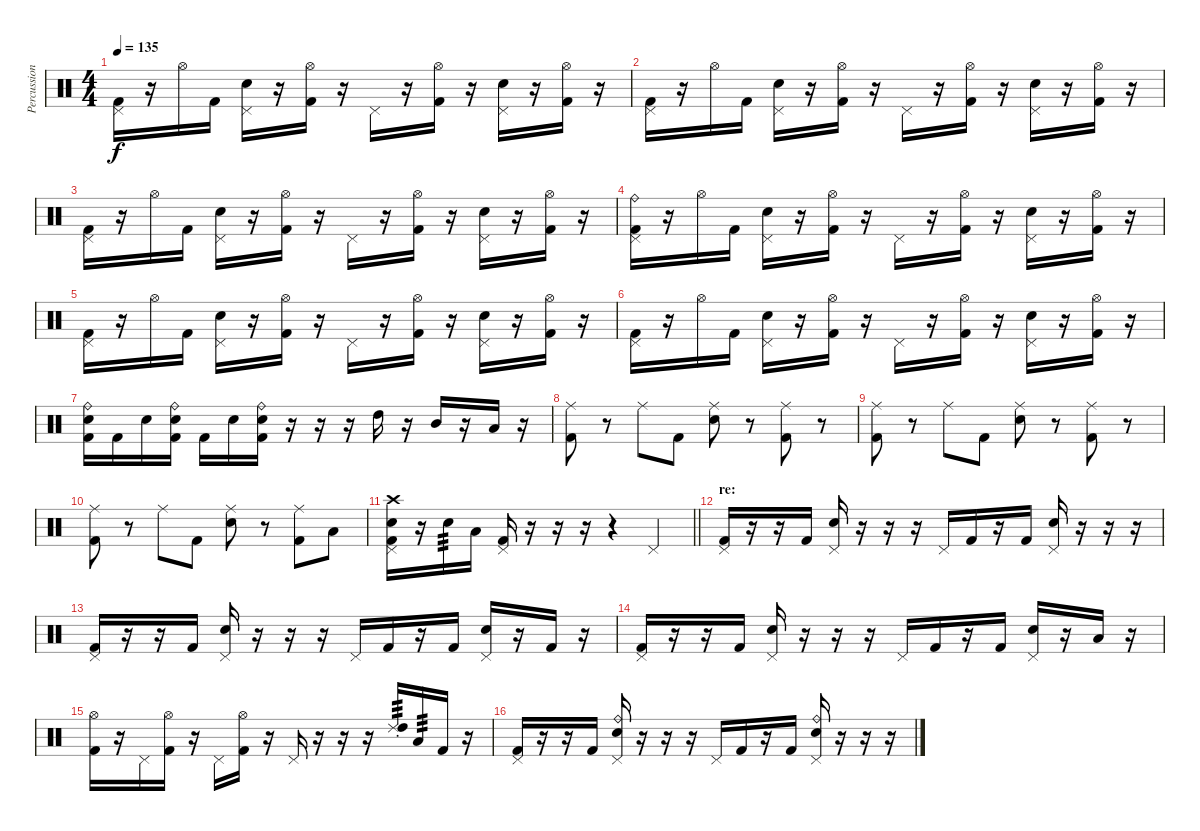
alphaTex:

\track ("Percussion" "Percussion") {instrument percussion}
\staff {score}
\articulation defaults
\ts (4 4)
\tempo 135
\clef neutral
\ks c
("Pedal Hi-Hat (hit)" "Kick (hit) 2").16{dy f} r.16 "Hi-Hat (open)".16 "Kick (hit) 2".16 ("Electric Snare (hit)" "Pedal Hi-Hat (hit)").16 r.16 ("Hi-Hat (open)" "Kick (hit) 2").16 r.16 "Pedal Hi-Hat (hit)".16 r.16 ("Hi-Hat (open)" "Kick (hit) 2").16 r.16 ("Electric Snare (hit)" "Pedal Hi-Hat (hit)").16 r.16 ("Hi-Hat (open)" "Kick (hit) 2").16 r.16 |
("Pedal Hi-Hat (hit)" "Kick (hit) 2").16 r.16 "Hi-Hat (open)".16 "Kick (hit) 2".16 ("Electric Snare (hit)" "Pedal Hi-Hat (hit)").16 r.16 ("Hi-Hat (open)" "Kick (hit) 2").16 r.16 "Pedal Hi-Hat (hit)".16 r.16 ("Hi-Hat (open)" "Kick (hit) 2").16 r.16 ("Electric Snare (hit)" "Pedal Hi-Hat (hit)").16 r.16 ("Hi-Hat (open)" "Kick (hit) 2").16 r.16 |
("Pedal Hi-Hat (hit)" "Kick (hit) 2").16 r.16 "Hi-Hat (open)".16 "Kick (hit) 2".16 ("Electric Snare (hit)" "Pedal Hi-Hat (hit)").16 r.16 ("Hi-Hat (open)" "Kick (hit) 2").16 r.16 "Pedal Hi-Hat (hit)".16 r.16 ("Hi-Hat (open)" "Kick (hit) 2").16 r.16 ("Electric Snare (hit)" "Pedal Hi-Hat (hit)").16 r.16 ("Hi-Hat (open)" "Kick (hit) 2").16 r.16 |
("Ride (bell)" "Pedal Hi-Hat (hit)" "Kick (hit) 2").16 r.16 "Hi-Hat (open)".16 "Kick (hit) 2".16 ("Electric Snare (hit)" "Pedal Hi-Hat (hit)").16 r.16 ("Hi-Hat (open)" "Kick (hit) 2").16 r.16 "Pedal Hi-Hat (hit)".16 r.16 ("Hi-Hat (open)" "Kick (hit) 2").16 r.16 ("Electric Snare (hit)" "Pedal Hi-Hat (hit)").16 r.16 ("Hi-Hat (open)" "Kick (hit) 2").16 r.16 |
("Pedal Hi-Hat (hit)" "Kick (hit) 2").16 r.16 "Hi-Hat (open)".16 "Kick (hit) 2".16 ("Electric Snare (hit)" "Pedal Hi-Hat (hit)").16 r.16 ("Hi-Hat (open)" "Kick (hit) 2").16 r.16 "Pedal Hi-Hat (hit)".16 r.16 ("Hi-Hat (open)" "Kick (hit) 2").16 r.16 ("Electric Snare (hit)" "Pedal Hi-Hat (hit)").16 r.16 ("Hi-Hat (open)" "Kick (hit) 2").16 r.16 |
("Pedal Hi-Hat (hit)" "Kick (hit) 2").16 r.16 "Hi-Hat (open)".16 "Kick (hit) 2".16 ("Electric Snare (hit)" "Pedal Hi-Hat (hit)").16 r.16 ("Hi-Hat (open)" "Kick (hit) 2").16 r.16 "Pedal Hi-Hat (hit)".16 r.16 ("Hi-Hat (open)" "Kick (hit) 2").16 r.16 ("Electric Snare (hit)" "Pedal Hi-Hat (hit)").16 r.16 ("Hi-Hat (open)" "Kick (hit) 2").16 r.16 |
("Ride (bell)" "Electric Snare (hit)" "Kick (hit) 2").16 "Kick (hit) 2".16 "Electric Snare (hit)".16 ("Ride (bell)" "Electric Snare (hit)" "Kick (hit) 2").16 "Kick (hit) 2".16 "Electric Snare (hit)".16 ("Ride (bell)" "Electric Snare (hit)" "Kick (hit) 2").16 r.16 r.16 r.16 "High Tom (hit)".16 r.16 "Mid Tom (hit)".16 r.16 "Low Tom (hit)".16 r.16 |
("Ride (middle)" "Kick (hit) 2").8 r.8 "Ride (middle)".8 "Kick (hit) 2".8 ("Ride (middle)" "Electric Snare (hit)").8 r.8 ("Ride (middle)" "Kick (hit) 2").8 r.8 |
("Ride (middle)" "Kick (hit) 2").8 r.8 "Ride (middle)".8 "Kick (hit) 2".8 ("Ride (middle)" "Electric Snare (hit)").8 r.8 ("Ride (middle)" "Kick (hit) 2").8 r.8 |
("Ride (middle)" "Kick (hit) 2").8 r.8 "Ride (middle)".8 "Kick (hit) 2".8 ("Ride (middle)" "Electric Snare (hit)").8 r.8 ("Ride (middle)" "Kick (hit) 2").8 "Low Tom (hit)".8 |
\barLineRight lightlight
("Crash high (hit)" "Electric Snare (hit)" "Pedal Hi-Hat (hit)" "Kick (hit) 2").16 r.16 "Electric Snare (hit)".16{tp 3} "Low Tom (hit)".16 ("Pedal Hi-Hat (hit)" "Kick (hit) 2").16 r.16 r.16 r.16 r.4 "Pedal Hi-Hat (hit)".4 |
\section ("" "re:")
("Pedal Hi-Hat (hit)" "Kick (hit) 2").16 r.16 r.16 "Kick (hit) 2".16 ("Electric Snare (hit)" "Pedal Hi-Hat (hit)").16 r.16 r.16 r.16 "Pedal Hi-Hat (hit)".16 "Kick (hit) 2".16 r.16 "Kick (hit) 2".16 ("Electric Snare (hit)" "Pedal Hi-Hat (hit)").16 r.16 r.16 r.16 |
("Pedal Hi-Hat (hit)" "Kick (hit) 2").16 r.16 r.16 "Kick (hit) 2".16 ("Electric Snare (hit)" "Pedal Hi-Hat (hit)").16 r.16 r.16 r.16 "Pedal Hi-Hat (hit)".16 "Kick (hit) 2".16 r.16 "Kick (hit) 2".16 ("Electric Snare (hit)" "Pedal Hi-Hat (hit)").16 r.16 "Kick (hit) 2".16 r.16 |
("Pedal Hi-Hat (hit)" "Kick (hit) 2").16 r.16 r.16 "Kick (hit) 2".16 ("Electric Snare (hit)" "Pedal Hi-Hat (hit)").16 r.16 r.16 r.16 "Pedal Hi-Hat (hit)".16 "Kick (hit) 2".16 r.16 "Kick (hit) 2".16 ("Electric Snare (hit)" "Pedal Hi-Hat (hit)").16 r.16 "Low Tom (hit)".16 r.16 |
("Hi-Hat (open)" "Kick (hit) 2").16 r.16 "Pedal Hi-Hat (hit)".16 ("Hi-Hat (open)" "Kick (hit) 2").16 r.16 "Pedal Hi-Hat (hit)".16 ("Hi-Hat (open)" "Kick (hit) 2").16 r.16 "Pedal Hi-Hat (hit)".16 r.16 r.16 r.16 ("Ride (choke) 2" "High Tom (hit)").16{tp 3} "Low Tom (hit)".16{tp 3} "Kick (hit) 2".16 r.16 |
("Pedal Hi-Hat (hit)" "Kick (hit) 2").16 r.16 r.16 "Kick (hit) 2".16 ("Ride (bell)" "Electric Snare (hit)" "Pedal Hi-Hat (hit)").16 r.16 r.16 r.16 "Pedal Hi-Hat (hit)".16 "Kick (hit) 2".16 r.16 "Kick (hit) 2".16 ("Ride (bell)" "Electric Snare (hit)" "Pedal Hi-Hat (hit)").16 r.16 r.16 r.16
